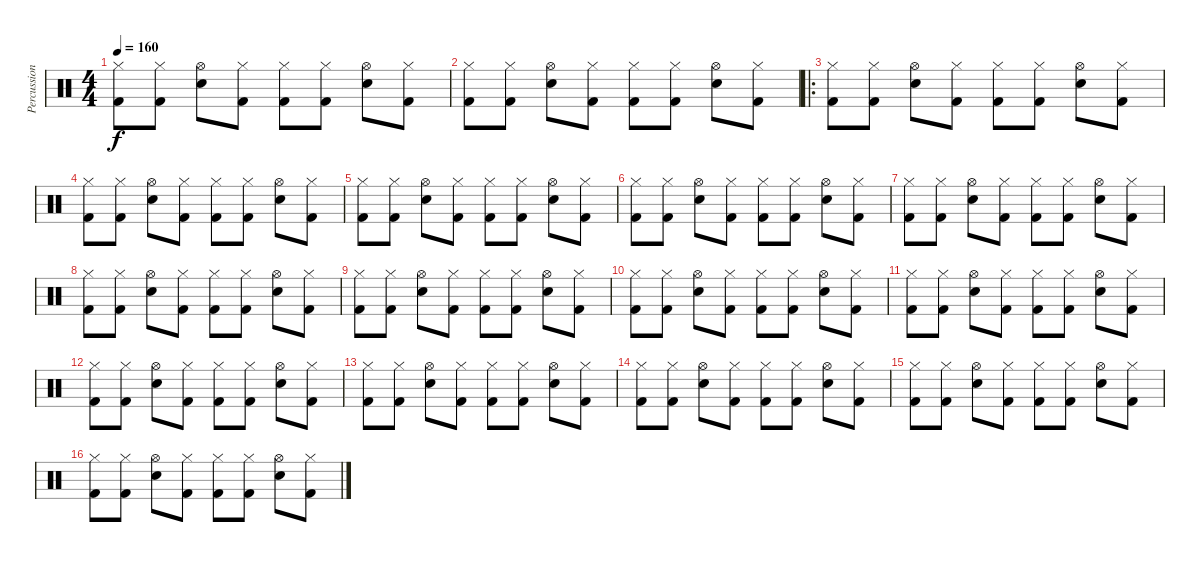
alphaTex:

\track ("Percussion" "Percussion") {instrument percussion}
\staff {score}
\articulation defaults
\ts (4 4)
\tempo 160
\clef neutral
\ks c
("Hi-Hat (closed)" "Kick (hit) 2").8{dy f} ("Hi-Hat (closed)" "Kick (hit) 2").8 ("Hi-Hat (open)" "Snare (hit) 2").8 ("Hi-Hat (closed)" "Kick (hit) 2").8 ("Hi-Hat (closed)" "Kick (hit) 2").8 ("Hi-Hat (closed)" "Kick (hit) 2").8 ("Hi-Hat (open)" "Snare (hit) 2").8 ("Hi-Hat (closed)" "Kick (hit) 2").8 |
("Hi-Hat (closed)" "Kick (hit) 2").8 ("Hi-Hat (closed)" "Kick (hit) 2").8 ("Hi-Hat (open)" "Snare (hit) 2").8 ("Hi-Hat (closed)" "Kick (hit) 2").8 ("Hi-Hat (closed)" "Kick (hit) 2").8 ("Hi-Hat (closed)" "Kick (hit) 2").8 ("Hi-Hat (open)" "Snare (hit) 2").8 ("Hi-Hat (closed)" "Kick (hit) 2").8 |
\ro
("Hi-Hat (closed)" "Kick (hit) 2").8 ("Hi-Hat (closed)" "Kick (hit) 2").8 ("Hi-Hat (open)" "Snare (hit) 2").8 ("Hi-Hat (closed)" "Kick (hit) 2").8 ("Hi-Hat (closed)" "Kick (hit) 2").8 ("Hi-Hat (closed)" "Kick (hit) 2").8 ("Hi-Hat (open)" "Snare (hit) 2").8 ("Hi-Hat (closed)" "Kick (hit) 2").8 |
("Hi-Hat (closed)" "Kick (hit) 2").8 ("Hi-Hat (closed)" "Kick (hit) 2").8 ("Hi-Hat (open)" "Snare (hit) 2").8 ("Hi-Hat (closed)" "Kick (hit) 2").8 ("Hi-Hat (closed)" "Kick (hit) 2").8 ("Hi-Hat (closed)" "Kick (hit) 2").8 ("Hi-Hat (open)" "Snare (hit) 2").8 ("Hi-Hat (closed)" "Kick (hit) 2").8 |
("Hi-Hat (closed)" "Kick (hit) 2").8 ("Hi-Hat (closed)" "Kick (hit) 2").8 ("Hi-Hat (open)" "Snare (hit) 2").8 ("Hi-Hat (closed)" "Kick (hit) 2").8 ("Hi-Hat (closed)" "Kick (hit) 2").8 ("Hi-Hat (closed)" "Kick (hit) 2").8 ("Hi-Hat (open)" "Snare (hit) 2").8 ("Hi-Hat (closed)" "Kick (hit) 2").8 |
("Hi-Hat (closed)" "Kick (hit) 2").8 ("Hi-Hat (closed)" "Kick (hit) 2").8 ("Hi-Hat (open)" "Snare (hit) 2").8 ("Hi-Hat (closed)" "Kick (hit) 2").8 ("Hi-Hat (closed)" "Kick (hit) 2").8 ("Hi-Hat (closed)" "Kick (hit) 2").8 ("Hi-Hat (open)" "Snare (hit) 2").8 ("Hi-Hat (closed)" "Kick (hit) 2").8 |
("Hi-Hat (closed)" "Kick (hit) 2").8 ("Hi-Hat (closed)" "Kick (hit) 2").8 ("Hi-Hat (open)" "Snare (hit) 2").8 ("Hi-Hat (closed)" "Kick (hit) 2").8 ("Hi-Hat (closed)" "Kick (hit) 2").8 ("Hi-Hat (closed)" "Kick (hit) 2").8 ("Hi-Hat (open)" "Snare (hit) 2").8 ("Hi-Hat (closed)" "Kick (hit) 2").8 |
("Hi-Hat (closed)" "Kick (hit) 2").8 ("Hi-Hat (closed)" "Kick (hit) 2").8 ("Hi-Hat (open)" "Snare (hit) 2").8 ("Hi-Hat (closed)" "Kick (hit) 2").8 ("Hi-Hat (closed)" "Kick (hit) 2").8 ("Hi-Hat (closed)" "Kick (hit) 2").8 ("Hi-Hat (open)" "Snare (hit) 2").8 ("Hi-Hat (closed)" "Kick (hit) 2").8 |
("Hi-Hat (closed)" "Kick (hit) 2").8 ("Hi-Hat (closed)" "Kick (hit) 2").8 ("Hi-Hat (open)" "Snare (hit) 2").8 ("Hi-Hat (closed)" "Kick (hit) 2").8 ("Hi-Hat (closed)" "Kick (hit) 2").8 ("Hi-Hat (closed)" "Kick (hit) 2").8 ("Hi-Hat (open)" "Snare (hit) 2").8 ("Hi-Hat (closed)" "Kick (hit) 2").8 |
("Hi-Hat (closed)" "Kick (hit) 2").8 ("Hi-Hat (closed)" "Kick (hit) 2").8 ("Hi-Hat (open)" "Snare (hit) 2").8 ("Hi-Hat (closed)" "Kick (hit) 2").8 ("Hi-Hat (closed)" "Kick (hit) 2").8 ("Hi-Hat (closed)" "Kick (hit) 2").8 ("Hi-Hat (open)" "Snare (hit) 2").8 ("Hi-Hat (closed)" "Kick (hit) 2").8 |
("Hi-Hat (closed)" "Kick (hit) 2").8 ("Hi-Hat (closed)" "Kick (hit) 2").8 ("Hi-Hat (open)" "Snare (hit) 2").8 ("Hi-Hat (closed)" "Kick (hit) 2").8 ("Hi-Hat (closed)" "Kick (hit) 2").8 ("Hi-Hat (closed)" "Kick (hit) 2").8 ("Hi-Hat (open)" "Snare (hit) 2").8 ("Hi-Hat (closed)" "Kick (hit) 2").8 |
("Hi-Hat (closed)" "Kick (hit) 2").8 ("Hi-Hat (closed)" "Kick (hit) 2").8 ("Hi-Hat (open)" "Snare (hit) 2").8 ("Hi-Hat (closed)" "Kick (hit) 2").8 ("Hi-Hat (closed)" "Kick (hit) 2").8 ("Hi-Hat (closed)" "Kick (hit) 2").8 ("Hi-Hat (open)" "Snare (hit) 2").8 ("Hi-Hat (closed)" "Kick (hit) 2").8 |
("Hi-Hat (closed)" "Kick (hit) 2").8 ("Hi-Hat (closed)" "Kick (hit) 2").8 ("Hi-Hat (open)" "Snare (hit) 2").8 ("Hi-Hat (closed)" "Kick (hit) 2").8 ("Hi-Hat (closed)" "Kick (hit) 2").8 ("Hi-Hat (closed)" "Kick (hit) 2").8 ("Hi-Hat (open)" "Snare (hit) 2").8 ("Hi-Hat (closed)" "Kick (hit) 2").8 |
("Hi-Hat (closed)" "Kick (hit) 2").8 ("Hi-Hat (closed)" "Kick (hit) 2").8 ("Hi-Hat (open)" "Snare (hit) 2").8 ("Hi-Hat (closed)" "Kick (hit) 2").8 ("Hi-Hat (closed)" "Kick (hit) 2").8 ("Hi-Hat (closed)" "Kick (hit) 2").8 ("Hi-Hat (open)" "Snare (hit) 2").8 ("Hi-Hat (closed)" "Kick (hit) 2").8 |
("Hi-Hat (closed)" "Kick (hit) 2").8 ("Hi-Hat (closed)" "Kick (hit) 2").8 ("Hi-Hat (open)" "Snare (hit) 2").8 ("Hi-Hat (closed)" "Kick (hit) 2").8 ("Hi-Hat (closed)" "Kick (hit) 2").8 ("Hi-Hat (closed)" "Kick (hit) 2").8 ("Hi-Hat (open)" "Snare (hit) 2").8 ("Hi-Hat (closed)" "Kick (hit) 2").8 |
("Hi-Hat (closed)" "Kick (hit) 2").8 ("Hi-Hat (closed)" "Kick (hit) 2").8 ("Hi-Hat (open)" "Snare (hit) 2").8 ("Hi-Hat (closed)" "Kick (hit) 2").8 ("Hi-Hat (closed)" "Kick (hit) 2").8 ("Hi-Hat (closed)" "Kick (hit) 2").8 ("Hi-Hat (open)" "Snare (hit) 2").8 ("Hi-Hat (closed)" "Kick (hit) 2").8
